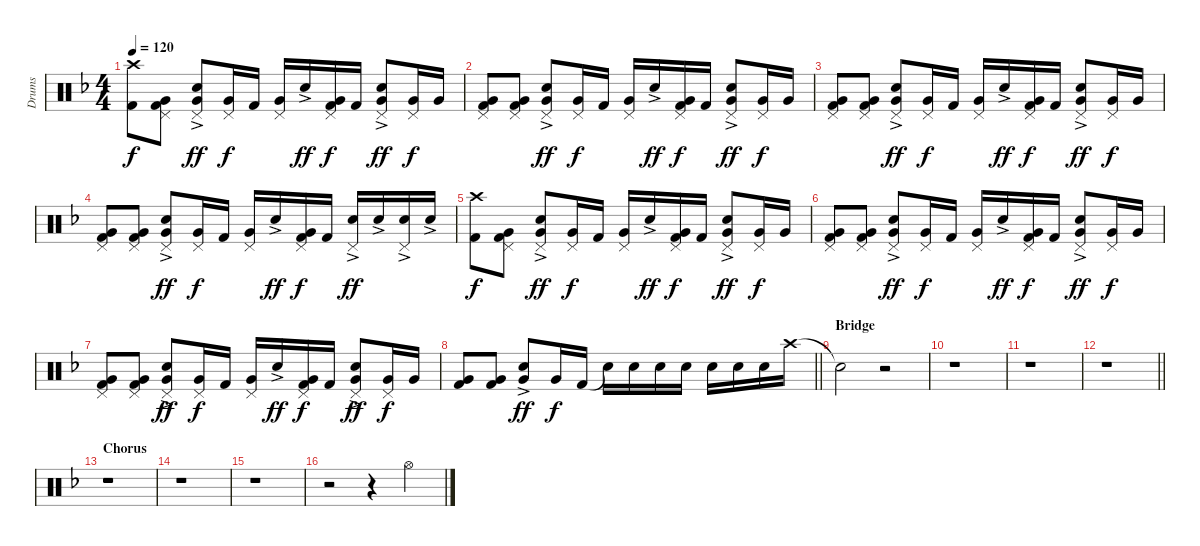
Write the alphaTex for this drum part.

\track ("Drums" "Drums") {instrument percussion}
\staff {score}
\articulation defaults
\ts (4 4)
\tempo 120
\clef neutral
\ks f
("Crash high (hit)" "Kick (hit) 2").8{dy f} ("Pedal Hi-Hat (hit)" "Very Low Tom (hit)" "Kick (hit) 2").8 ("Pedal Hi-Hat (hit)" "Electric Snare (hit)"{ac} "Very Low Tom (hit)").8{dy ff} ("Pedal Hi-Hat (hit)" "Very Low Tom (hit)").16{dy f} "Kick (hit) 2".16 ("Pedal Hi-Hat (hit)" "Very Low Tom (hit)").16 "Electric Snare (hit)"{ac}.16{dy ff} ("Pedal Hi-Hat (hit)" "Very Low Tom (hit)" "Kick (hit) 2").16{dy f} "Kick (hit) 2".16 ("Pedal Hi-Hat (hit)" "Electric Snare (hit)"{ac} "Very Low Tom (hit)").8{dy ff} ("Pedal Hi-Hat (hit)" "Very Low Tom (hit)").16{dy f} "Very Low Tom (hit)".16 |
("Pedal Hi-Hat (hit)" "Very Low Tom (hit)" "Kick (hit) 2").8 ("Pedal Hi-Hat (hit)" "Very Low Tom (hit)" "Kick (hit) 2").8 ("Pedal Hi-Hat (hit)" "Electric Snare (hit)"{ac} "Very Low Tom (hit)").8{dy ff} ("Pedal Hi-Hat (hit)" "Very Low Tom (hit)").16{dy f} "Kick (hit) 2".16 ("Pedal Hi-Hat (hit)" "Very Low Tom (hit)").16 "Electric Snare (hit)"{ac}.16{dy ff} ("Pedal Hi-Hat (hit)" "Very Low Tom (hit)" "Kick (hit) 2").16{dy f} "Kick (hit) 2".16 ("Pedal Hi-Hat (hit)" "Electric Snare (hit)"{ac} "Very Low Tom (hit)").8{dy ff} ("Pedal Hi-Hat (hit)" "Very Low Tom (hit)").16{dy f} "Very Low Tom (hit)".16 |
("Pedal Hi-Hat (hit)" "Very Low Tom (hit)" "Kick (hit) 2").8 ("Pedal Hi-Hat (hit)" "Very Low Tom (hit)" "Kick (hit) 2").8 ("Pedal Hi-Hat (hit)" "Electric Snare (hit)"{ac} "Very Low Tom (hit)").8{dy ff} ("Pedal Hi-Hat (hit)" "Very Low Tom (hit)").16{dy f} "Kick (hit) 2".16 ("Pedal Hi-Hat (hit)" "Very Low Tom (hit)").16 "Electric Snare (hit)"{ac}.16{dy ff} ("Pedal Hi-Hat (hit)" "Very Low Tom (hit)" "Kick (hit) 2").16{dy f} "Kick (hit) 2".16 ("Pedal Hi-Hat (hit)" "Electric Snare (hit)"{ac} "Very Low Tom (hit)").8{dy ff} ("Pedal Hi-Hat (hit)" "Very Low Tom (hit)").16{dy f} "Very Low Tom (hit)".16 |
("Pedal Hi-Hat (hit)" "Very Low Tom (hit)" "Kick (hit) 2").8 ("Pedal Hi-Hat (hit)" "Very Low Tom (hit)" "Kick (hit) 2").8 ("Pedal Hi-Hat (hit)" "Electric Snare (hit)"{ac} "Very Low Tom (hit)").8{dy ff} ("Pedal Hi-Hat (hit)" "Very Low Tom (hit)").16{dy f} "Kick (hit) 2".16 ("Pedal Hi-Hat (hit)" "Very Low Tom (hit)").16 "Electric Snare (hit)"{ac}.16{dy ff} ("Pedal Hi-Hat (hit)" "Very Low Tom (hit)" "Kick (hit) 2").16{dy f} "Kick (hit) 2".16 ("Pedal Hi-Hat (hit)" "Electric Snare (hit)"{ac}).16{dy ff} "Electric Snare (hit)"{ac}.16 ("Pedal Hi-Hat (hit)" "Electric Snare (hit)"{ac}).16 "Electric Snare (hit)"{ac}.16 |
("Crash high (hit)" "Kick (hit) 2").8{dy f} ("Pedal Hi-Hat (hit)" "Very Low Tom (hit)" "Kick (hit) 2").8 ("Pedal Hi-Hat (hit)" "Electric Snare (hit)"{ac} "Very Low Tom (hit)").8{dy ff} ("Pedal Hi-Hat (hit)" "Very Low Tom (hit)").16{dy f} "Kick (hit) 2".16 ("Pedal Hi-Hat (hit)" "Very Low Tom (hit)").16 "Electric Snare (hit)"{ac}.16{dy ff} ("Pedal Hi-Hat (hit)" "Very Low Tom (hit)" "Kick (hit) 2").16{dy f} "Kick (hit) 2".16 ("Pedal Hi-Hat (hit)" "Electric Snare (hit)"{ac} "Very Low Tom (hit)").8{dy ff} ("Pedal Hi-Hat (hit)" "Very Low Tom (hit)").16{dy f} "Very Low Tom (hit)".16 |
("Pedal Hi-Hat (hit)" "Very Low Tom (hit)" "Kick (hit) 2").8 ("Pedal Hi-Hat (hit)" "Very Low Tom (hit)" "Kick (hit) 2").8 ("Pedal Hi-Hat (hit)" "Electric Snare (hit)"{ac} "Very Low Tom (hit)").8{dy ff} ("Pedal Hi-Hat (hit)" "Very Low Tom (hit)").16{dy f} "Kick (hit) 2".16 ("Pedal Hi-Hat (hit)" "Very Low Tom (hit)").16 "Electric Snare (hit)"{ac}.16{dy ff} ("Pedal Hi-Hat (hit)" "Very Low Tom (hit)" "Kick (hit) 2").16{dy f} "Kick (hit) 2".16 ("Pedal Hi-Hat (hit)" "Electric Snare (hit)"{ac} "Very Low Tom (hit)").8{dy ff} ("Pedal Hi-Hat (hit)" "Very Low Tom (hit)").16{dy f} "Very Low Tom (hit)".16 |
("Pedal Hi-Hat (hit)" "Very Low Tom (hit)" "Kick (hit) 2").8 ("Pedal Hi-Hat (hit)" "Very Low Tom (hit)" "Kick (hit) 2").8 ("Pedal Hi-Hat (hit)" "Electric Snare (hit)"{ac} "Very Low Tom (hit)").8{dy ff} ("Pedal Hi-Hat (hit)" "Very Low Tom (hit)").16{dy f} "Kick (hit) 2".16 ("Pedal Hi-Hat (hit)" "Very Low Tom (hit)").16 "Electric Snare (hit)"{ac}.16{dy ff} ("Pedal Hi-Hat (hit)" "Very Low Tom (hit)" "Kick (hit) 2").16{dy f} "Kick (hit) 2".16 ("Pedal Hi-Hat (hit)" "Electric Snare (hit)"{ac} "Very Low Tom (hit)").8{dy ff} ("Pedal Hi-Hat (hit)" "Very Low Tom (hit)").16{dy f} "Very Low Tom (hit)".16 |
\barLineRight lightlight
("Very Low Tom (hit)" "Kick (hit) 2").8 ("Very Low Tom (hit)" "Kick (hit) 2").8 ("Electric Snare (hit)"{ac} "Very Low Tom (hit)").8{dy ff} "Very Low Tom (hit)".16{dy f} "Kick (hit) 2".16 "Snare (hit)"{t}.16 "Electric Snare (hit)".16 "Electric Snare (hit)".16 "Electric Snare (hit)".16 "Electric Snare (hit)".16 "Electric Snare (hit)".16 "Electric Snare (hit)".16 "Crash high (hit)".16 |
\section ("" "Bridge")
"Snare (hit)"{t}.2 r.2 |
r.1 |
r.1 |
\barLineRight lightlight
r.1 |
\section ("" "Chorus")
r.1 |
r.1 |
r.1 |
r.2 r.4 "Hi-Hat (open)".4
